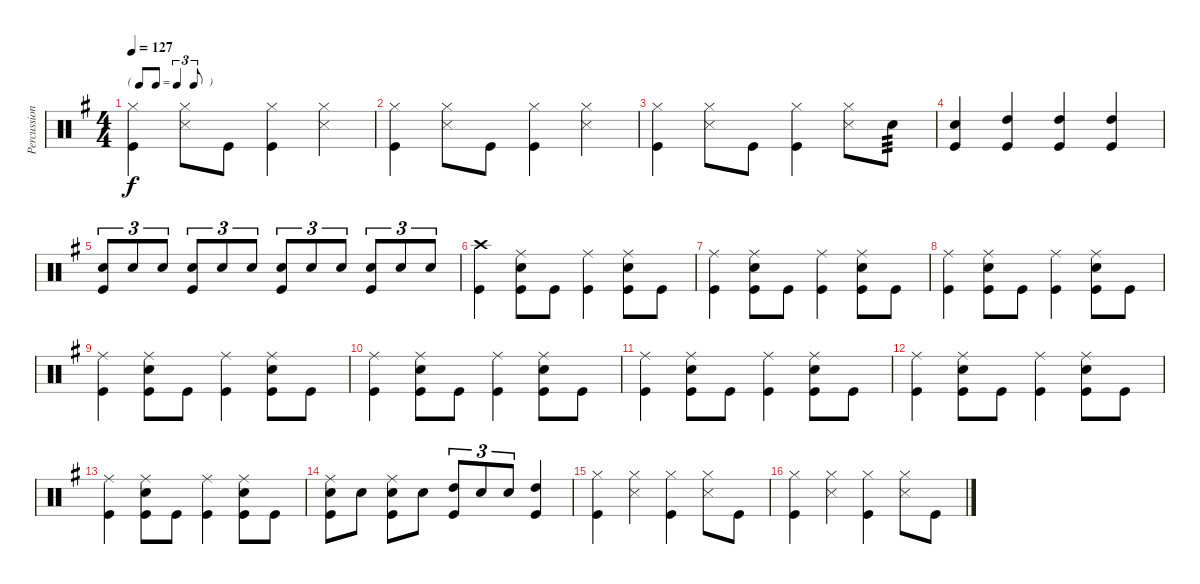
\track ("Percussion" "Percussion") {instrument percussion}
\staff {score}
\articulation defaults
\ts (4 4)
\tf triplet8th
\tempo 127
\clef neutral
\ks g
("Hi-Hat (closed)" "Kick (hit)").4{dy f} ("Hi-Hat (closed)" "Snare (side stick) 3").8 "Kick (hit)".8 ("Hi-Hat (closed)" "Kick (hit)").4 ("Hi-Hat (closed)" "Snare (side stick) 3").4 |
("Hi-Hat (closed)" "Kick (hit)").4 ("Hi-Hat (closed)" "Snare (side stick) 3").8 "Kick (hit)".8 ("Hi-Hat (closed)" "Kick (hit)").4 ("Hi-Hat (closed)" "Snare (side stick) 3").4 |
("Hi-Hat (closed)" "Kick (hit)").4 ("Hi-Hat (closed)" "Snare (side stick) 3").8 "Kick (hit)".8 ("Hi-Hat (closed)" "Kick (hit)").4 ("Hi-Hat (closed)" "Snare (side stick) 3").8 "Snare (hit) 2".8{tp 3} |
("Snare (hit) 2" "Kick (hit)").4 ("High Tom (hit)" "Kick (hit)").4 ("High Tom (hit)" "Kick (hit)").4 ("High Tom (hit)" "Kick (hit)").4 |
("Snare (hit) 2" "Kick (hit)").8{tu (3 2)} "Snare (hit) 2".8{tu (3 2)} "Snare (hit) 2".8{tu (3 2)} ("Snare (hit) 2" "Kick (hit)").8{tu (3 2)} "Snare (hit) 2".8{tu (3 2)} "Snare (hit) 2".8{tu (3 2)} ("Snare (hit) 2" "Kick (hit)").8{tu (3 2)} "Snare (hit) 2".8{tu (3 2)} "Snare (hit) 2".8{tu (3 2)} ("Snare (hit) 2" "Kick (hit)").8{tu (3 2)} "Snare (hit) 2".8{tu (3 2)} "Snare (hit) 2".8{tu (3 2)} |
("Crash high (hit)" "Kick (hit)").4 ("Ride (middle)" "Snare (hit) 2" "Kick (hit)").8 "Kick (hit)".8 ("Ride (middle)" "Kick (hit)").4 ("Ride (middle)" "Snare (hit) 2" "Kick (hit)").8 "Kick (hit)".8 |
("Ride (middle)" "Kick (hit)").4 ("Ride (middle)" "Snare (hit) 2" "Kick (hit)").8 "Kick (hit)".8 ("Ride (middle)" "Kick (hit)").4 ("Ride (middle)" "Snare (hit) 2" "Kick (hit)").8 "Kick (hit)".8 |
("Ride (middle)" "Kick (hit)").4 ("Ride (middle)" "Snare (hit) 2" "Kick (hit)").8 "Kick (hit)".8 ("Ride (middle)" "Kick (hit)").4 ("Ride (middle)" "Snare (hit) 2" "Kick (hit)").8 "Kick (hit)".8 |
("Ride (middle)" "Kick (hit)").4 ("Ride (middle)" "Snare (hit) 2" "Kick (hit)").8 "Kick (hit)".8 ("Ride (middle)" "Kick (hit)").4 ("Ride (middle)" "Snare (hit) 2" "Kick (hit)").8 "Kick (hit)".8 |
("Ride (middle)" "Kick (hit)").4 ("Ride (middle)" "Snare (hit) 2" "Kick (hit)").8 "Kick (hit)".8 ("Ride (middle)" "Kick (hit)").4 ("Ride (middle)" "Snare (hit) 2" "Kick (hit)").8 "Kick (hit)".8 |
("Ride (middle)" "Kick (hit)").4 ("Ride (middle)" "Snare (hit) 2" "Kick (hit)").8 "Kick (hit)".8 ("Ride (middle)" "Kick (hit)").4 ("Ride (middle)" "Snare (hit) 2" "Kick (hit)").8 "Kick (hit)".8 |
("Ride (middle)" "Kick (hit)").4 ("Ride (middle)" "Snare (hit) 2" "Kick (hit)").8 "Kick (hit)".8 ("Ride (middle)" "Kick (hit)").4 ("Ride (middle)" "Snare (hit) 2" "Kick (hit)").8 "Kick (hit)".8 |
("Ride (middle)" "Kick (hit)").4 ("Ride (middle)" "Snare (hit) 2" "Kick (hit)").8 "Kick (hit)".8 ("Ride (middle)" "Kick (hit)").4 ("Ride (middle)" "Snare (hit) 2" "Kick (hit)").8 "Kick (hit)".8 |
("Ride (middle)" "Snare (hit) 2" "Kick (hit)").8 "Snare (hit) 2".8 ("Ride (middle)" "Snare (hit) 2" "Kick (hit)").8 "Snare (hit) 2".8 ("High Tom (hit)" "Kick (hit)").8{tu (3 2)} "Snare (hit) 2".8{tu (3 2)} "Snare (hit) 2".8{tu (3 2)} ("High Tom (hit)" "Kick (hit)").4 |
("Hi-Hat (closed)" "Kick (hit)").4 ("Hi-Hat (closed)" "Snare (side stick) 3").4 ("Hi-Hat (closed)" "Kick (hit)").4 ("Hi-Hat (closed)" "Snare (side stick) 3").8 "Kick (hit)".8 |
("Hi-Hat (closed)" "Kick (hit)").4 ("Hi-Hat (closed)" "Snare (side stick) 3").4 ("Hi-Hat (closed)" "Kick (hit)").4 ("Hi-Hat (closed)" "Snare (side stick) 3").8 "Kick (hit)".8
